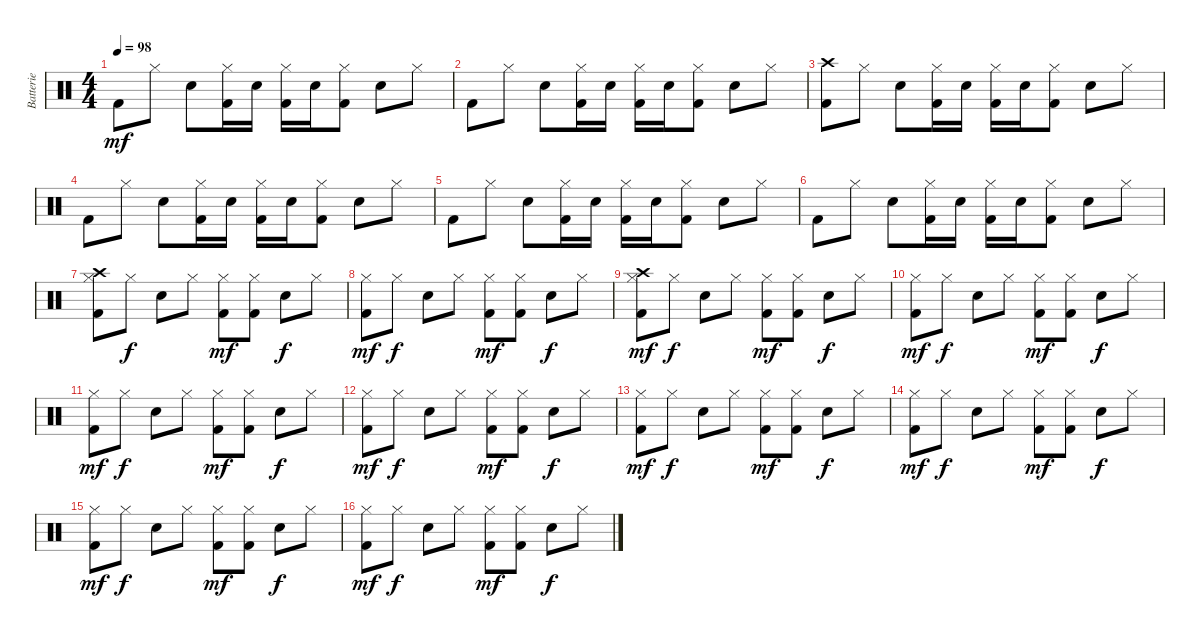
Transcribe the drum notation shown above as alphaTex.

\track ("Batterie" "Batterie") {instrument percussion}
\staff {score}
\articulation defaults
\ts (4 4)
\tempo 98
\clef neutral
\ks c "Kick (hit) 2".8{dy mf} "Hi-Hat (closed)".8 "Electric Snare (hit)".8
("Kick (hit) 2" "Hi-Hat (closed)").16 "Snare (hit) 2".16 ("Kick (hit) 2" "Hi-Hat (closed)").16 "Snare (hit) 2".16 ("Kick (hit) 2" "Hi-Hat (closed)").8 "Electric Snare (hit)".8 "Hi-Hat (closed)".8 |
"Kick (hit) 2".8 "Hi-Hat (closed)".8 "Electric Snare (hit)".8 ("Kick (hit) 2" "Hi-Hat (closed)").16 "Snare (hit) 2".16 ("Kick (hit) 2" "Hi-Hat (closed)").16 "Snare (hit) 2".16 ("Kick (hit) 2" "Hi-Hat (closed)").8 "Electric Snare (hit)".8 "Hi-Hat (closed)".8 |
("Kick (hit) 2" "Crash high (hit)").8 "Hi-Hat (closed)".8 "Electric Snare (hit)".8 ("Kick (hit) 2" "Hi-Hat (closed)").16 "Snare (hit) 2".16 ("Kick (hit) 2" "Hi-Hat (closed)").16 "Snare (hit) 2".16 ("Kick (hit) 2" "Hi-Hat (closed)").8 "Electric Snare (hit)".8 "Hi-Hat (closed)".8 |
"Kick (hit) 2".8 "Hi-Hat (closed)".8 "Electric Snare (hit)".8 ("Kick (hit) 2" "Hi-Hat (closed)").16 "Snare (hit) 2".16 ("Kick (hit) 2" "Hi-Hat (closed)").16 "Snare (hit) 2".16 ("Kick (hit) 2" "Hi-Hat (closed)").8 "Electric Snare (hit)".8 "Hi-Hat (closed)".8 |
"Kick (hit) 2".8 "Hi-Hat (closed)".8 "Electric Snare (hit)".8 ("Kick (hit) 2" "Hi-Hat (closed)").16 "Snare (hit) 2".16 ("Kick (hit) 2" "Hi-Hat (closed)").16 "Snare (hit) 2".16 ("Kick (hit) 2" "Hi-Hat (closed)").8 "Electric Snare (hit)".8 "Hi-Hat (closed)".8 |
"Kick (hit) 2".8 "Hi-Hat (closed)".8 "Electric Snare (hit)".8 ("Kick (hit) 2" "Hi-Hat (closed)").16 "Snare (hit) 2".16 ("Kick (hit) 2" "Hi-Hat (closed)").16 "Snare (hit) 2".16 ("Kick (hit) 2" "Hi-Hat (closed)").8 "Electric Snare (hit)".8 "Hi-Hat (closed)".8 |
("Kick (hit) 2" "Hi-Hat (closed)" "Crash high (hit)").8 "Hi-Hat (closed)".8{dy f} "Snare (hit) 2".8 "Hi-Hat (closed)".8 ("Kick (hit) 2" "Hi-Hat (closed)").8{dy mf} ("Kick (hit) 2" "Hi-Hat (closed)").8 "Snare (hit) 2".8{dy f} "Hi-Hat (closed)".8 |
("Kick (hit) 2" "Hi-Hat (closed)").8{dy mf} "Hi-Hat (closed)".8{dy f} "Snare (hit) 2".8 "Hi-Hat (closed)".8 ("Kick (hit) 2" "Hi-Hat (closed)").8{dy mf} ("Kick (hit) 2" "Hi-Hat (closed)").8 "Snare (hit) 2".8{dy f} "Hi-Hat (closed)".8 |
("Kick (hit) 2" "Crash high (hit)" "Hi-Hat (closed)").8{dy mf} "Hi-Hat (closed)".8{dy f} "Snare (hit) 2".8 "Hi-Hat (closed)".8 ("Kick (hit) 2" "Hi-Hat (closed)").8{dy mf} ("Kick (hit) 2" "Hi-Hat (closed)").8 "Snare (hit) 2".8{dy f} "Hi-Hat (closed)".8 |
("Kick (hit) 2" "Hi-Hat (closed)").8{dy mf} "Hi-Hat (closed)".8{dy f} "Snare (hit) 2".8 "Hi-Hat (closed)".8 ("Kick (hit) 2" "Hi-Hat (closed)").8{dy mf} ("Kick (hit) 2" "Hi-Hat (closed)").8 "Snare (hit) 2".8{dy f} "Hi-Hat (closed)".8 |
("Kick (hit) 2" "Hi-Hat (closed)").8{dy mf} "Hi-Hat (closed)".8{dy f} "Snare (hit) 2".8 "Hi-Hat (closed)".8 ("Kick (hit) 2" "Hi-Hat (closed)").8{dy mf} ("Kick (hit) 2" "Hi-Hat (closed)").8 "Snare (hit) 2".8{dy f} "Hi-Hat (closed)".8 |
("Kick (hit) 2" "Hi-Hat (closed)").8{dy mf} "Hi-Hat (closed)".8{dy f} "Snare (hit) 2".8 "Hi-Hat (closed)".8 ("Kick (hit) 2" "Hi-Hat (closed)").8{dy mf} ("Kick (hit) 2" "Hi-Hat (closed)").8 "Snare (hit) 2".8{dy f} "Hi-Hat (closed)".8 |
("Kick (hit) 2" "Hi-Hat (closed)").8{dy mf} "Hi-Hat (closed)".8{dy f} "Snare (hit) 2".8 "Hi-Hat (closed)".8 ("Kick (hit) 2" "Hi-Hat (closed)").8{dy mf} ("Kick (hit) 2" "Hi-Hat (closed)").8 "Snare (hit) 2".8{dy f} "Hi-Hat (closed)".8 |
("Kick (hit) 2" "Hi-Hat (closed)").8{dy mf} "Hi-Hat (closed)".8{dy f} "Snare (hit) 2".8 "Hi-Hat (closed)".8 ("Kick (hit) 2" "Hi-Hat (closed)").8{dy mf} ("Kick (hit) 2" "Hi-Hat (closed)").8 "Snare (hit) 2".8{dy f} "Hi-Hat (closed)".8 |
("Kick (hit) 2" "Hi-Hat (closed)").8{dy mf} "Hi-Hat (closed)".8{dy f} "Snare (hit) 2".8 "Hi-Hat (closed)".8 ("Kick (hit) 2" "Hi-Hat (closed)").8{dy mf} ("Kick (hit) 2" "Hi-Hat (closed)").8 "Snare (hit) 2".8{dy f} "Hi-Hat (closed)".8 |
("Kick (hit) 2" "Hi-Hat (closed)").8{dy mf} "Hi-Hat (closed)".8{dy f} "Snare (hit) 2".8 "Hi-Hat (closed)".8 ("Kick (hit) 2" "Hi-Hat (closed)").8{dy mf} ("Kick (hit) 2" "Hi-Hat (closed)").8 "Snare (hit) 2".8{dy f} "Hi-Hat (closed)".8
